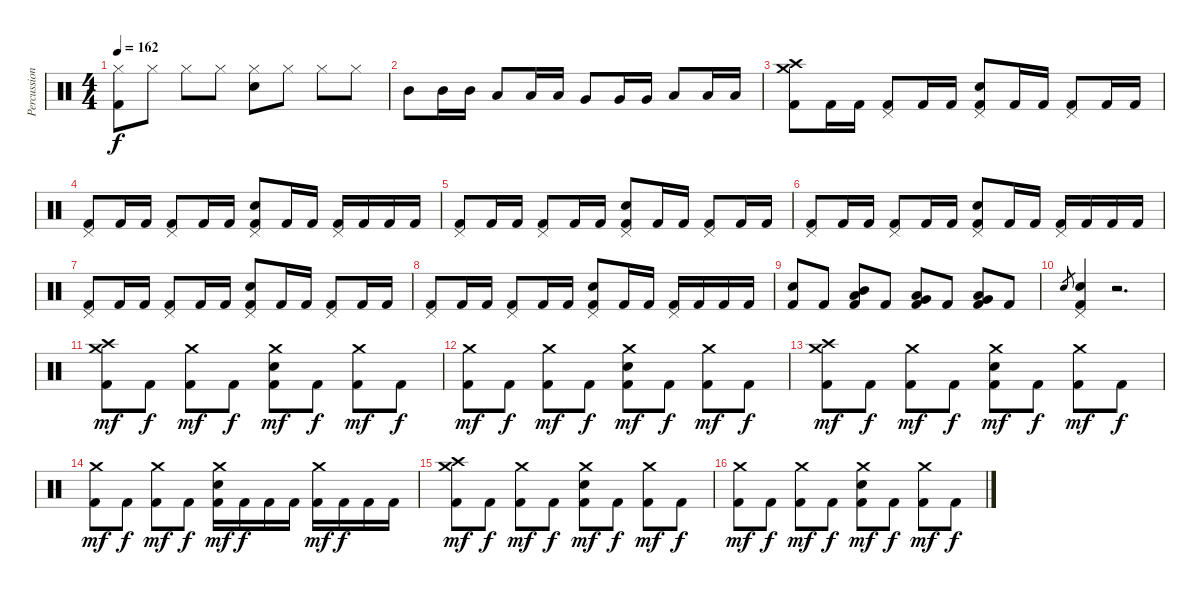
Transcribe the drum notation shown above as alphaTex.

\track ("Percussion" "Percussion") {instrument percussion}
\staff {score}
\articulation defaults
\ts (4 4)
\tempo 162
\clef neutral
\ks c
("Kick (hit) 2" "Hi-Hat (closed)").8{dy f} "Hi-Hat (closed)".8 "Hi-Hat (closed)".8 "Hi-Hat (closed)".8 ("Snare (hit) 2" "Hi-Hat (closed)").8 "Hi-Hat (closed)".8 "Hi-Hat (closed)".8 "Hi-Hat (closed)".8 |
"Mid Tom (hit)".8 "Mid Tom (hit)".16 "Mid Tom (hit)".16 "Low Tom (hit)".8 "Low Tom (hit)".16 "Low Tom (hit)".16 "Very Low Tom (hit)".8 "Very Low Tom (hit)".16 "Very Low Tom (hit)".16 "Low Floor Tom (hit)".8 "Low Floor Tom (hit)".16 "Low Floor Tom (hit)".16 |
("Kick (hit) 2" "Crash high (hit)" "Crash medium (hit)").8 "Kick (hit) 2".16 "Kick (hit) 2".16 ("Kick (hit) 2" "Pedal Hi-Hat (hit)").8 "Kick (hit) 2".16 "Kick (hit) 2".16 ("Kick (hit) 2" "Snare (hit) 2" "Pedal Hi-Hat (hit)").8 "Kick (hit) 2".16 "Kick (hit) 2".16 ("Kick (hit) 2" "Pedal Hi-Hat (hit)").8 "Kick (hit) 2".16 "Kick (hit) 2".16 |
("Kick (hit) 2" "Pedal Hi-Hat (hit)").8 "Kick (hit) 2".16 "Kick (hit) 2".16 ("Kick (hit) 2" "Pedal Hi-Hat (hit)").8 "Kick (hit) 2".16 "Kick (hit) 2".16 ("Kick (hit) 2" "Snare (hit) 2" "Pedal Hi-Hat (hit)").8 "Kick (hit) 2".16 "Kick (hit) 2".16 ("Kick (hit) 2" "Pedal Hi-Hat (hit)").16 "Kick (hit) 2".16 "Kick (hit) 2".16 "Kick (hit) 2".16 |
("Kick (hit) 2" "Pedal Hi-Hat (hit)").8 "Kick (hit) 2".16 "Kick (hit) 2".16 ("Kick (hit) 2" "Pedal Hi-Hat (hit)").8 "Kick (hit) 2".16 "Kick (hit) 2".16 ("Kick (hit) 2" "Snare (hit) 2" "Pedal Hi-Hat (hit)").8 "Kick (hit) 2".16 "Kick (hit) 2".16 ("Kick (hit) 2" "Pedal Hi-Hat (hit)").8 "Kick (hit) 2".16 "Kick (hit) 2".16 |
("Kick (hit) 2" "Pedal Hi-Hat (hit)").8 "Kick (hit) 2".16 "Kick (hit) 2".16 ("Kick (hit) 2" "Pedal Hi-Hat (hit)").8 "Kick (hit) 2".16 "Kick (hit) 2".16 ("Kick (hit) 2" "Snare (hit) 2" "Pedal Hi-Hat (hit)").8 "Kick (hit) 2".16 "Kick (hit) 2".16 ("Kick (hit) 2" "Pedal Hi-Hat (hit)").16 "Kick (hit) 2".16 "Kick (hit) 2".16 "Kick (hit) 2".16 |
("Kick (hit) 2" "Pedal Hi-Hat (hit)").8 "Kick (hit) 2".16 "Kick (hit) 2".16 ("Kick (hit) 2" "Pedal Hi-Hat (hit)").8 "Kick (hit) 2".16 "Kick (hit) 2".16 ("Kick (hit) 2" "Snare (hit) 2" "Pedal Hi-Hat (hit)").8 "Kick (hit) 2".16 "Kick (hit) 2".16 ("Kick (hit) 2" "Pedal Hi-Hat (hit)").8 "Kick (hit) 2".16 "Kick (hit) 2".16 |
("Kick (hit) 2" "Pedal Hi-Hat (hit)").8 "Kick (hit) 2".16 "Kick (hit) 2".16 ("Kick (hit) 2" "Pedal Hi-Hat (hit)").8 "Kick (hit) 2".16 "Kick (hit) 2".16 ("Kick (hit) 2" "Snare (hit) 2" "Pedal Hi-Hat (hit)").8 "Kick (hit) 2".16 "Kick (hit) 2".16 ("Kick (hit) 2" "Pedal Hi-Hat (hit)").16 "Kick (hit) 2".16 "Kick (hit) 2".16 "Kick (hit) 2".16 |
("Kick (hit) 2" "Snare (hit) 2").8 "Kick (hit) 2".8 ("Kick (hit) 2" "Low Tom (hit)" "Mid Tom (hit)").8 "Kick (hit) 2".8 ("Kick (hit) 2" "Very Low Tom (hit)" "Low Tom (hit)").8 "Kick (hit) 2".8 ("Kick (hit) 2" "Low Floor Tom (hit)" "Very Low Tom (hit)").8 "Kick (hit) 2".8 |
"Snare (hit) 2".8{gr} ("Kick (hit) 2" "Snare (hit) 2" "Pedal Hi-Hat (hit)").4 r.2{d} |
("Kick (hit) 2" "Crash high (hit)" "Crash medium (hit)").8{dy mf} "Kick (hit) 2".8{dy f} ("Kick (hit) 2" "Crash medium (hit)").8{dy mf} "Kick (hit) 2".8{dy f} ("Kick (hit) 2" "Snare (hit) 2" "Crash medium (hit)").8{dy mf} "Kick (hit) 2".8{dy f} ("Kick (hit) 2" "Crash medium (hit)").8{dy mf} "Kick (hit) 2".8{dy f} |
("Kick (hit) 2" "Crash medium (hit)").8{dy mf} "Kick (hit) 2".8{dy f} ("Kick (hit) 2" "Crash medium (hit)").8{dy mf} "Kick (hit) 2".8{dy f} ("Kick (hit) 2" "Snare (hit) 2" "Crash medium (hit)").8{dy mf} "Kick (hit) 2".8{dy f} ("Kick (hit) 2" "Crash medium (hit)").8{dy mf} "Kick (hit) 2".8{dy f} |
("Kick (hit) 2" "Crash high (hit)" "Crash medium (hit)").8{dy mf} "Kick (hit) 2".8{dy f} ("Kick (hit) 2" "Crash medium (hit)").8{dy mf} "Kick (hit) 2".8{dy f} ("Kick (hit) 2" "Snare (hit) 2" "Crash medium (hit)").8{dy mf} "Kick (hit) 2".8{dy f} ("Kick (hit) 2" "Crash medium (hit)").8{dy mf} "Kick (hit) 2".8{dy f} |
("Kick (hit) 2" "Crash medium (hit)").8{dy mf} "Kick (hit) 2".8{dy f} ("Kick (hit) 2" "Crash medium (hit)").8{dy mf} "Kick (hit) 2".8{dy f} ("Kick (hit) 2" "Snare (hit) 2" "Crash medium (hit)").16{dy mf} "Kick (hit) 2".16{dy f} "Kick (hit) 2".16 "Kick (hit) 2".16 ("Kick (hit) 2" "Crash medium (hit)").16{dy mf} "Kick (hit) 2".16{dy f} "Kick (hit) 2".16 "Kick (hit) 2".16 |
("Kick (hit) 2" "Crash high (hit)" "Crash medium (hit)").8{dy mf} "Kick (hit) 2".8{dy f} ("Kick (hit) 2" "Crash medium (hit)").8{dy mf} "Kick (hit) 2".8{dy f} ("Kick (hit) 2" "Snare (hit) 2" "Crash medium (hit)").8{dy mf} "Kick (hit) 2".8{dy f} ("Kick (hit) 2" "Crash medium (hit)").8{dy mf} "Kick (hit) 2".8{dy f} |
("Kick (hit) 2" "Crash medium (hit)").8{dy mf} "Kick (hit) 2".8{dy f} ("Kick (hit) 2" "Crash medium (hit)").8{dy mf} "Kick (hit) 2".8{dy f} ("Kick (hit) 2" "Snare (hit) 2" "Crash medium (hit)").8{dy mf} "Kick (hit) 2".8{dy f} ("Kick (hit) 2" "Crash medium (hit)").8{dy mf} "Kick (hit) 2".8{dy f}
